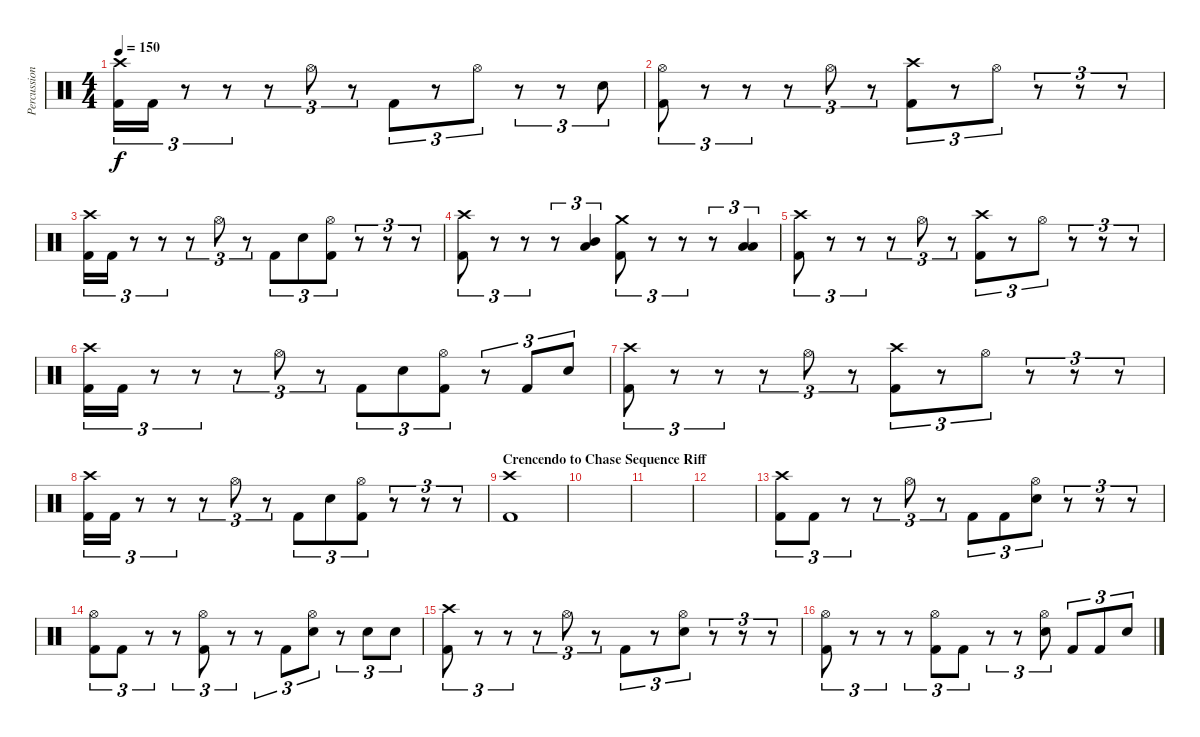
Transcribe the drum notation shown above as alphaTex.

\track ("Percussion" "Percussion") {instrument percussion}
\staff {score}
\articulation defaults
\ts (4 4)
\tempo 150
\clef neutral
\ks c
("Crash high (hit)" "Kick (hit) 2").16{tu (3 2) dy f} "Kick (hit) 2".16{tu (3 2)} r.8{tu (3 2)} r.8{tu (3 2)} r.8{tu (3 2)} "Hi-Hat (open)".8{tu (3 2)} r.8{tu (3 2)} "Kick (hit) 2".8{tu (3 2)} r.8{tu (3 2)} "Hi-Hat (open)".8{tu (3 2)} r.8{tu (3 2)} r.8{tu (3 2)} "Electric Snare (hit)".8{tu (3 2)} |
("Hi-Hat (open)" "Kick (hit) 2").8{tu (3 2)} r.8{tu (3 2)} r.8{tu (3 2)} r.8{tu (3 2)} "Hi-Hat (open)".8{tu (3 2)} r.8{tu (3 2)} ("Crash high (hit)" "Kick (hit) 2").8{tu (3 2)} r.8{tu (3 2)} "Hi-Hat (open)".8{tu (3 2)} r.8{tu (3 2)} r.8{tu (3 2)} r.8{tu (3 2)} |
("Crash high (hit)" "Kick (hit) 2").16{tu (3 2)} "Kick (hit) 2".16{tu (3 2)} r.8{tu (3 2)} r.8{tu (3 2)} r.8{tu (3 2)} "Hi-Hat (open)".8{tu (3 2)} r.8{tu (3 2)} "Kick (hit) 2".8{tu (3 2)} "Electric Snare (hit)".8{tu (3 2)} ("Hi-Hat (open)" "Kick (hit) 2").8{tu (3 2)} r.8{tu (3 2)} r.8{tu (3 2)} r.8{tu (3 2)} |
("Crash high (hit)" "Kick (hit) 2").8{tu (3 2)} r.8{tu (3 2)} r.8{tu (3 2)} r.8{tu (3 2)} ("Mid Tom (hit)" "Low Tom (hit)").4{tu (3 2)} ("Crash medium (hit)" "Kick (hit) 2").8{tu (3 2)} r.8{tu (3 2)} r.8{tu (3 2)} r.8{tu (3 2)} ("Low Tom (hit)" "Low Floor Tom (hit)").4{tu (3 2)} |
("Crash high (hit)" "Kick (hit) 2").8{tu (3 2)} r.8{tu (3 2)} r.8{tu (3 2)} r.8{tu (3 2)} "Hi-Hat (open)".8{tu (3 2)} r.8{tu (3 2)} ("Crash high (hit)" "Kick (hit) 2").8{tu (3 2)} r.8{tu (3 2)} "Hi-Hat (open)".8{tu (3 2)} r.8{tu (3 2)} r.8{tu (3 2)} r.8{tu (3 2)} |
("Crash high (hit)" "Kick (hit) 2").16{tu (3 2)} "Kick (hit) 2".16{tu (3 2)} r.8{tu (3 2)} r.8{tu (3 2)} r.8{tu (3 2)} "Hi-Hat (open)".8{tu (3 2)} r.8{tu (3 2)} "Kick (hit) 2".8{tu (3 2)} "Electric Snare (hit)".8{tu (3 2)} ("Hi-Hat (open)" "Kick (hit) 2").8{tu (3 2)} r.8{tu (3 2)} "Kick (hit) 2".8{tu (3 2)} "Electric Snare (hit)".8{tu (3 2)} |
("Crash high (hit)" "Kick (hit) 2").8{tu (3 2)} r.8{tu (3 2)} r.8{tu (3 2)} r.8{tu (3 2)} "Hi-Hat (open)".8{tu (3 2)} r.8{tu (3 2)} ("Crash high (hit)" "Kick (hit) 2").8{tu (3 2)} r.8{tu (3 2)} "Hi-Hat (open)".8{tu (3 2)} r.8{tu (3 2)} r.8{tu (3 2)} r.8{tu (3 2)} |
("Crash high (hit)" "Kick (hit) 2").16{tu (3 2)} "Kick (hit) 2".16{tu (3 2)} r.8{tu (3 2)} r.8{tu (3 2)} r.8{tu (3 2)} "Hi-Hat (open)".8{tu (3 2)} r.8{tu (3 2)} "Kick (hit) 2".8{tu (3 2)} "Electric Snare (hit)".8{tu (3 2)} ("Hi-Hat (open)" "Kick (hit) 2").8{tu (3 2)} r.8{tu (3 2)} r.8{tu (3 2)} r.8{tu (3 2)} |
\section ("" "Crencendo to Chase Sequence Riff")
("Crash high (hit)" "Kick (hit) 2").1 |
|
|
|
("Crash high (hit)" "Kick (hit) 2").8{tu (3 2)} "Kick (hit) 2".8{tu (3 2)} r.8{tu (3 2)} r.8{tu (3 2)} "Hi-Hat (open)".8{tu (3 2)} r.8{tu (3 2)} "Kick (hit) 2".8{tu (3 2)} "Kick (hit) 2".8{tu (3 2)} ("Hi-Hat (open)" "Electric Snare (hit)").8{tu (3 2)} r.8{tu (3 2)} r.8{tu (3 2)} r.8{tu (3 2)} |
("Hi-Hat (open)" "Kick (hit) 2").8{tu (3 2)} "Kick (hit) 2".8{tu (3 2)} r.8{tu (3 2)} r.8{tu (3 2)} ("Hi-Hat (open)" "Kick (hit) 2").8{tu (3 2)} r.8{tu (3 2)} r.8{tu (3 2)} "Kick (hit) 2".8{tu (3 2)} ("Hi-Hat (open)" "Electric Snare (hit)").8{tu (3 2)} r.8{tu (3 2)} "Electric Snare (hit)".8{tu (3 2)} "Electric Snare (hit)".8{tu (3 2)} |
("Crash high (hit)" "Kick (hit) 2").8{tu (3 2)} r.8{tu (3 2)} r.8{tu (3 2)} r.8{tu (3 2)} "Hi-Hat (open)".8{tu (3 2)} r.8{tu (3 2)} "Kick (hit) 2".8{tu (3 2)} r.8{tu (3 2)} ("Hi-Hat (open)" "Electric Snare (hit)").8{tu (3 2)} r.8{tu (3 2)} r.8{tu (3 2)} r.8{tu (3 2)} |
("Hi-Hat (open)" "Kick (hit) 2").8{tu (3 2)} r.8{tu (3 2)} r.8{tu (3 2)} r.8{tu (3 2)} ("Hi-Hat (open)" "Kick (hit) 2").8{tu (3 2)} "Kick (hit) 2".8{tu (3 2)} r.8{tu (3 2)} r.8{tu (3 2)} ("Hi-Hat (open)" "Electric Snare (hit)").8{tu (3 2)} "Kick (hit) 2".8{tu (3 2)} "Kick (hit) 2".8{tu (3 2)} "Electric Snare (hit)".8{tu (3 2)}
